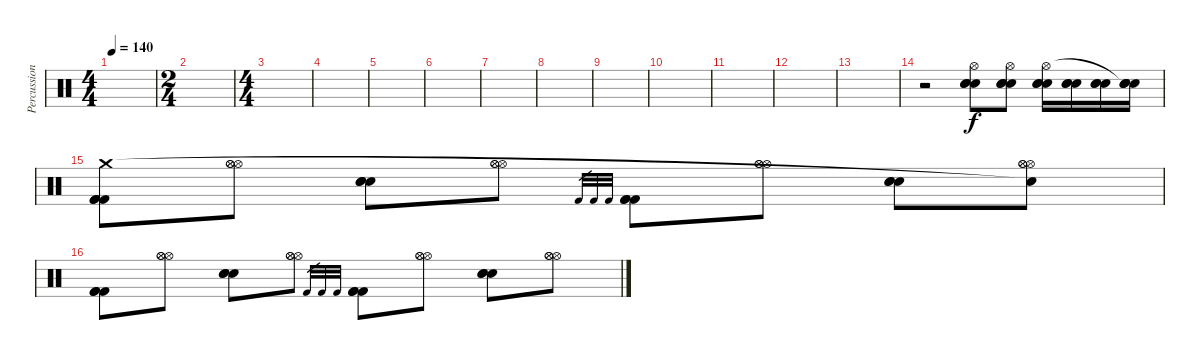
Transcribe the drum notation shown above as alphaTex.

\track ("Percussion" "Percussion") {instrument percussion}
\staff {score}
\articulation defaults
\ts (4 4)
\tempo 140
\clef neutral
\ks c
|
\ts (2 4)
|
\ts (4 4)
|
|
|
|
|
|
|
|
|
|
|
r.2 ("Electric Snare (hit)" "Electric Snare (hit)" "Electric Snare (hit)" "Hi-Hat (open)").8 ("Electric Snare (hit)" "Electric Snare (hit)" "Electric Snare (hit)" "Hi-Hat (open)").8 ("Electric Snare (hit)" "Electric Snare (hit)" "Electric Snare (hit)" "Hi-Hat (open)").16 ("Electric Snare (hit)" "Electric Snare (hit)" "Electric Snare (hit)").16 ("Electric Snare (hit)" "Electric Snare (hit)" "Electric Snare (hit)").16 ("Electric Snare (hit)" "Electric Snare (hit)" "Electric Snare (hit)" "Snare (hit)"{t}).16 |
("Kick (hit) 2" "Kick (hit) 2" "Kick (hit) 2" "Crash medium (hit)").8 ("Hi-Hat (open)" "Hi-Hat (open)" "Hi-Hat (open)").8 ("Electric Snare (hit)" "Electric Snare (hit)" "Electric Snare (hit)").8 ("Hi-Hat (open)" "Hi-Hat (open)" "Hi-Hat (open)").8 "Kick (hit) 2".32{gr} "Kick (hit) 2".32{gr} "Kick (hit) 2".32{gr} ("Kick (hit) 2" "Kick (hit) 2" "Kick (hit) 2").8 ("Hi-Hat (open)" "Hi-Hat (open)" "Hi-Hat (open)").8 ("Electric Snare (hit)" "Electric Snare (hit)" "Electric Snare (hit)").8 ("Hi-Hat (open)" "Hi-Hat (open)" "Hi-Hat (open)" "Snare (hit)"{t}).8 |
("Kick (hit) 2" "Kick (hit) 2" "Kick (hit) 2").8 ("Hi-Hat (open)" "Hi-Hat (open)" "Hi-Hat (open)").8 ("Electric Snare (hit)" "Electric Snare (hit)" "Electric Snare (hit)").8 ("Hi-Hat (open)" "Hi-Hat (open)" "Hi-Hat (open)").8 "Kick (hit) 2".32{gr} "Kick (hit) 2".32{gr} "Kick (hit) 2".32{gr} ("Kick (hit) 2" "Kick (hit) 2" "Kick (hit) 2").8 ("Hi-Hat (open)" "Hi-Hat (open)" "Hi-Hat (open)").8 ("Electric Snare (hit)" "Electric Snare (hit)" "Electric Snare (hit)").8 ("Hi-Hat (open)" "Hi-Hat (open)" "Hi-Hat (open)").8
